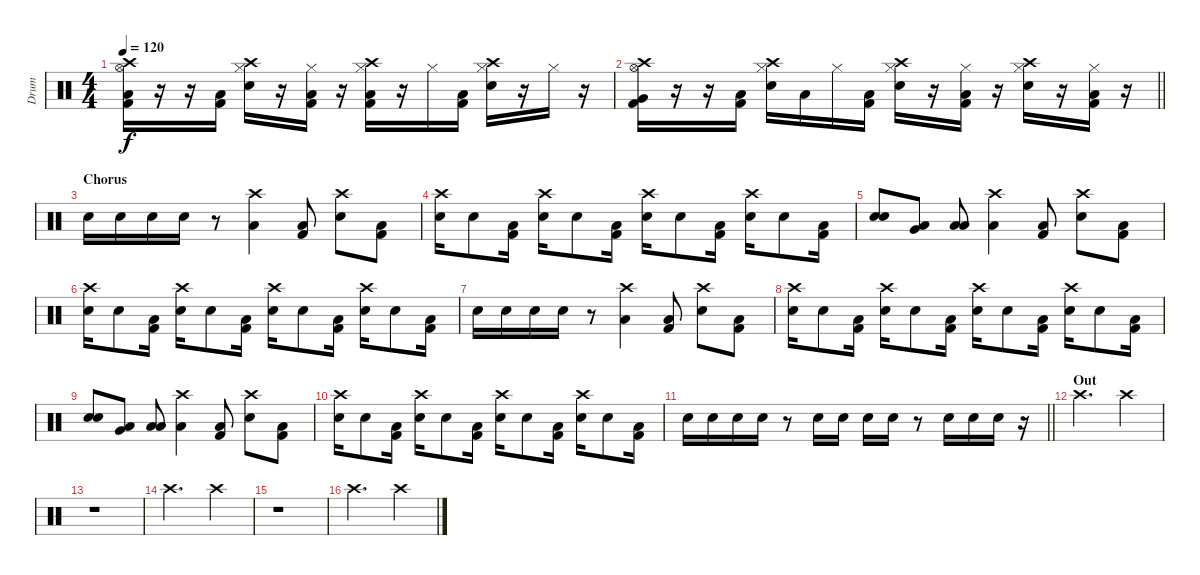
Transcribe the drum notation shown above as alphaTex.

\track ("Drum" "Drum") {instrument percussion}
\staff {score}
\articulation defaults
\ts (4 4)
\tempo 120
\clef neutral
\ks c
("Crash high (hit)" "Hi-Hat (open)" "Low Floor Tom (hit)" "Kick (hit) 2").16{dy f} r.16 r.16 ("Low Floor Tom (hit)" "Kick (hit) 2").16 ("Crash high (hit)" "Hi-Hat (closed)" "Snare (hit) 2").16 r.16 ("Hi-Hat (closed)" "Low Floor Tom (hit)" "Kick (hit) 2").16 r.16 ("Crash high (hit)" "Hi-Hat (closed)" "Low Floor Tom (hit)" "Kick (hit) 2").16 r.16 "Hi-Hat (closed)".16 ("Low Floor Tom (hit)" "Kick (hit) 2").16 ("Crash high (hit)" "Hi-Hat (closed)" "Snare (hit) 2").16 r.16 "Hi-Hat (closed)".16 r.16 |
\barLineRight lightlight
("Crash high (hit)" "Hi-Hat (open)" "Very Low Tom (hit)" "Kick (hit) 2").16 r.16 r.16 ("Low Floor Tom (hit)" "Kick (hit) 2").16 ("Crash high (hit)" "Hi-Hat (closed)" "Snare (hit) 2").16 "Low Floor Tom (hit)".16 "Hi-Hat (closed)".16 ("Low Floor Tom (hit)" "Kick (hit) 2").16 ("Crash high (hit)" "Hi-Hat (closed)" "Snare (hit) 2").16 r.16 ("Hi-Hat (closed)" "Low Floor Tom (hit)" "Kick (hit) 2").16 r.16 ("Crash high (hit)" "Hi-Hat (closed)" "Snare (hit) 2").16 r.16 ("Hi-Hat (closed)" "Low Floor Tom (hit)" "Kick (hit) 2").16 r.16 |
\section ("" "Chorus")
"Snare (hit) 2".16 "Snare (hit) 2".16 "Snare (hit) 2".16 "Snare (hit) 2".16 r.8 ("Crash high (hit)" "Low Floor Tom (hit)").4 ("Low Floor Tom (hit)" "Kick (hit) 2").8 ("Crash high (hit)" "Snare (hit) 2").8 ("Low Floor Tom (hit)" "Kick (hit) 2").8 |
("Crash high (hit)" "Snare (hit) 2").16 "Snare (hit) 2".8 ("Low Floor Tom (hit)" "Kick (hit) 2").16 ("Crash high (hit)" "Snare (hit) 2").16 "Snare (hit) 2".8 ("Low Floor Tom (hit)" "Kick (hit) 2").16 ("Crash high (hit)" "Snare (hit) 2").16 "Snare (hit) 2".8 ("Low Floor Tom (hit)" "Kick (hit) 2").16 ("Crash high (hit)" "Snare (hit) 2").16 "Snare (hit) 2".8 ("Low Floor Tom (hit)" "Kick (hit) 2").16 |
("Snare (hit) 2" "Snare (hit) 2").8 ("Very Low Tom (hit)" "Low Floor Tom (hit)").8 ("Low Floor Tom (hit)" "Low Floor Tom (hit)").8 ("Crash high (hit)" "Low Floor Tom (hit)").4 ("Low Floor Tom (hit)" "Kick (hit) 2").8 ("Crash high (hit)" "Snare (hit) 2").8 ("Low Floor Tom (hit)" "Kick (hit) 2").8 |
("Crash high (hit)" "Snare (hit) 2").16 "Snare (hit) 2".8 ("Low Floor Tom (hit)" "Kick (hit) 2").16 ("Crash high (hit)" "Snare (hit) 2").16 "Snare (hit) 2".8 ("Low Floor Tom (hit)" "Kick (hit) 2").16 ("Crash high (hit)" "Snare (hit) 2").16 "Snare (hit) 2".8 ("Low Floor Tom (hit)" "Kick (hit) 2").16 ("Crash high (hit)" "Snare (hit) 2").16 "Snare (hit) 2".8 ("Low Floor Tom (hit)" "Kick (hit) 2").16 |
"Snare (hit) 2".16 "Snare (hit) 2".16 "Snare (hit) 2".16 "Snare (hit) 2".16 r.8 ("Crash high (hit)" "Low Floor Tom (hit)").4 ("Low Floor Tom (hit)" "Kick (hit) 2").8 ("Crash high (hit)" "Snare (hit) 2").8 ("Low Floor Tom (hit)" "Kick (hit) 2").8 |
("Crash high (hit)" "Snare (hit) 2").16 "Snare (hit) 2".8 ("Low Floor Tom (hit)" "Kick (hit) 2").16 ("Crash high (hit)" "Snare (hit) 2").16 "Snare (hit) 2".8 ("Low Floor Tom (hit)" "Kick (hit) 2").16 ("Crash high (hit)" "Snare (hit) 2").16 "Snare (hit) 2".8 ("Low Floor Tom (hit)" "Kick (hit) 2").16 ("Crash high (hit)" "Snare (hit) 2").16 "Snare (hit) 2".8 ("Low Floor Tom (hit)" "Kick (hit) 2").16 |
("Snare (hit) 2" "Snare (hit) 2").8 ("Very Low Tom (hit)" "Low Floor Tom (hit)").8 ("Low Floor Tom (hit)" "Low Floor Tom (hit)").8 ("Crash high (hit)" "Low Floor Tom (hit)").4 ("Low Floor Tom (hit)" "Kick (hit) 2").8 ("Crash high (hit)" "Snare (hit) 2").8 ("Low Floor Tom (hit)" "Kick (hit) 2").8 |
("Crash high (hit)" "Snare (hit) 2").16 "Snare (hit) 2".8 ("Low Floor Tom (hit)" "Kick (hit) 2").16 ("Crash high (hit)" "Snare (hit) 2").16 "Snare (hit) 2".8 ("Low Floor Tom (hit)" "Kick (hit) 2").16 ("Crash high (hit)" "Snare (hit) 2").16 "Snare (hit) 2".8 ("Low Floor Tom (hit)" "Kick (hit) 2").16 ("Crash high (hit)" "Snare (hit) 2").16 "Snare (hit) 2".8 ("Low Floor Tom (hit)" "Kick (hit) 2").16 |
\barLineRight lightlight "Snare (hit) 2".16 "Snare (hit) 2".16 "Snare (hit) 2".16 "Snare (hit) 2".16
r.8 "Snare (hit) 2".16 "Snare (hit) 2".16 "Snare (hit) 2".16 "Snare (hit) 2".16 r.8 "Snare (hit) 2".16 "Snare (hit) 2".16 "Snare (hit) 2".16 r.16 |
\section ("" "Out")
"Crash high (hit)".2{d volume 16} "Crash high (hit)".4 |
r.1{volume 0} |
"Crash high (hit)".2{d volume 16} "Crash high (hit)".4 |
r.1{volume 0} |
"Crash high (hit)".2{d volume 16} "Crash high (hit)".4
